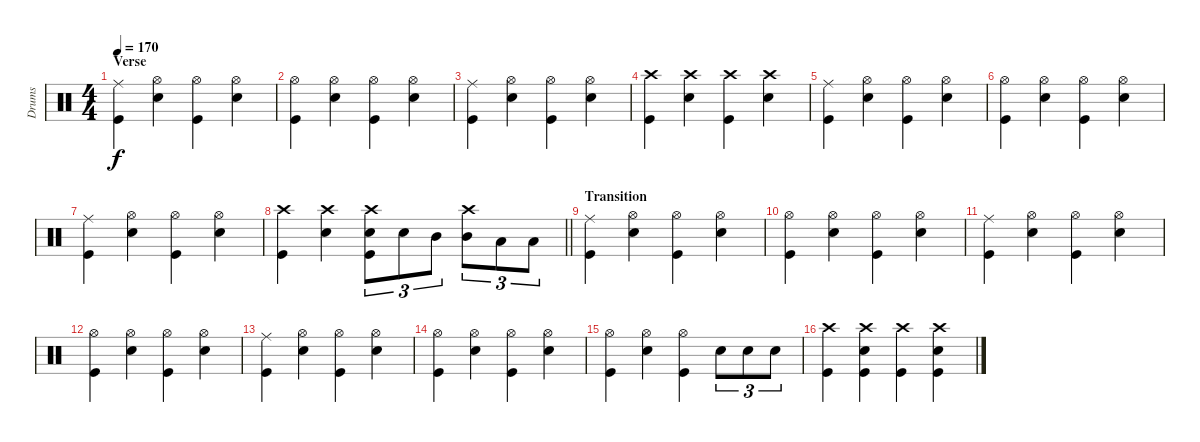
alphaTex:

\track ("Drums" "Drums") {instrument percussion}
\staff {score}
\articulation defaults
\ts (4 4)
\section ("" "Verse")
\tempo 170
\clef neutral
\ks c
("Ride (middle)" "Kick (hit)").4{dy f} ("Hi-Hat (open)" "Snare (hit) 2").4 ("Hi-Hat (open)" "Kick (hit)").4 ("Hi-Hat (open)" "Snare (hit) 2").4 |
("Hi-Hat (open)" "Kick (hit)").4 ("Hi-Hat (open)" "Snare (hit) 2").4 ("Hi-Hat (open)" "Kick (hit)").4 ("Hi-Hat (open)" "Snare (hit) 2").4 |
("Ride (middle)" "Kick (hit)").4 ("Hi-Hat (open)" "Snare (hit) 2").4 ("Hi-Hat (open)" "Kick (hit)").4 ("Hi-Hat (open)" "Snare (hit) 2").4 |
("Crash high (hit)" "Kick (hit)").4 ("Crash high (hit)" "Snare (hit) 2").4 ("Crash high (hit)" "Kick (hit)").4 ("Crash high (hit)" "Snare (hit) 2").4 |
("Ride (middle)" "Kick (hit)").4 ("Hi-Hat (open)" "Snare (hit) 2").4 ("Hi-Hat (open)" "Kick (hit)").4 ("Hi-Hat (open)" "Snare (hit) 2").4 |
("Hi-Hat (open)" "Kick (hit)").4 ("Hi-Hat (open)" "Snare (hit) 2").4 ("Hi-Hat (open)" "Kick (hit)").4 ("Hi-Hat (open)" "Snare (hit) 2").4 |
("Ride (middle)" "Kick (hit)").4 ("Hi-Hat (open)" "Snare (hit) 2").4 ("Hi-Hat (open)" "Kick (hit)").4 ("Hi-Hat (open)" "Snare (hit) 2").4 |
\barLineRight lightlight
("Crash high (hit)" "Kick (hit)").4 ("Crash high (hit)" "Snare (hit) 2").4 ("Crash high (hit)" "Snare (hit) 2" "Kick (hit)").8{tu (3 2)} "Snare (hit) 2".8{tu (3 2)} "Mid Tom (hit)".8{tu (3 2)} ("Crash high (hit)" "Mid Tom (hit)").8{tu (3 2)} "Low Tom (hit)".8{tu (3 2)} "Low Tom (hit)".8{tu (3 2)} |
\section ("" "Transition")
("Ride (middle)" "Kick (hit)").4 ("Hi-Hat (open)" "Snare (hit) 2").4 ("Hi-Hat (open)" "Kick (hit)").4 ("Hi-Hat (open)" "Snare (hit) 2").4 |
("Hi-Hat (open)" "Kick (hit)").4 ("Hi-Hat (open)" "Snare (hit) 2").4 ("Hi-Hat (open)" "Kick (hit)").4 ("Hi-Hat (open)" "Snare (hit) 2").4 |
("Ride (middle)" "Kick (hit)").4 ("Hi-Hat (open)" "Snare (hit) 2").4 ("Hi-Hat (open)" "Kick (hit)").4 ("Hi-Hat (open)" "Snare (hit) 2").4 |
("Hi-Hat (open)" "Kick (hit)").4 ("Hi-Hat (open)" "Snare (hit) 2").4 ("Hi-Hat (open)" "Kick (hit)").4 ("Hi-Hat (open)" "Snare (hit) 2").4 |
("Ride (middle)" "Kick (hit)").4 ("Hi-Hat (open)" "Snare (hit) 2").4 ("Hi-Hat (open)" "Kick (hit)").4 ("Hi-Hat (open)" "Snare (hit) 2").4 |
("Hi-Hat (open)" "Kick (hit)").4 ("Hi-Hat (open)" "Snare (hit) 2").4 ("Hi-Hat (open)" "Kick (hit)").4 ("Hi-Hat (open)" "Snare (hit) 2").4 |
("Hi-Hat (open)" "Kick (hit)").4 ("Hi-Hat (open)" "Snare (hit) 2").4 ("Hi-Hat (open)" "Kick (hit)").4 "Snare (hit) 2".8{tu (3 2)} "Snare (hit) 2".8{tu (3 2)} "Snare (hit) 2".8{tu (3 2)} |
("Crash high (hit)" "Kick (hit)").4 ("Crash high (hit)" "Snare (hit) 2" "Kick (hit)").4 ("Crash high (hit)" "Kick (hit)").4 ("Crash high (hit)" "Snare (hit) 2" "Kick (hit)").4
